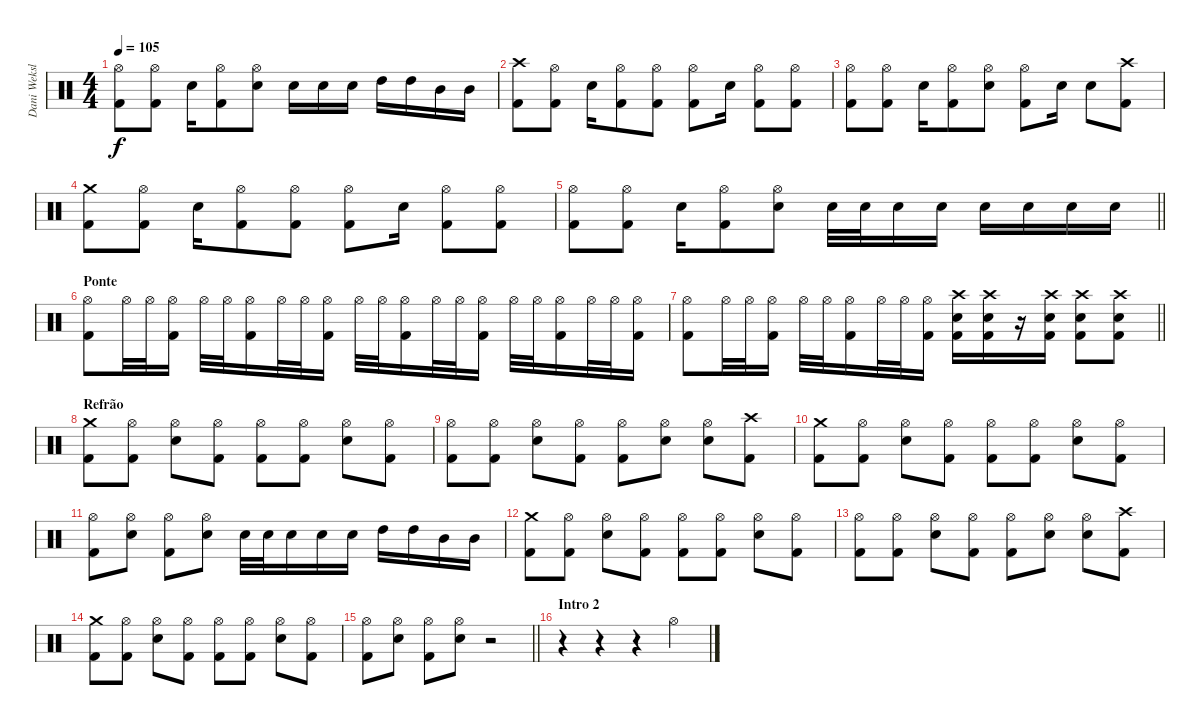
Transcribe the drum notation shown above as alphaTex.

\track ("Dani Weksler" "Dani Weksl") {instrument percussion}
\staff {score}
\articulation defaults
\ts (4 4)
\tempo 105
\clef neutral
\ks c
("Hi-Hat (open)" "Kick (hit) 2").8{dy f} ("Hi-Hat (open)" "Kick (hit) 2").8 "Electric Snare (hit)".16 ("Hi-Hat (open)" "Kick (hit) 2").8 ("Hi-Hat (open)" "Electric Snare (hit)").8 "Electric Snare (hit)".16 "Electric Snare (hit)".16 "Electric Snare (hit)".16 "High Tom (hit)".16 "High Tom (hit)".16 "Mid Tom (hit)".16 "Mid Tom (hit)".16 |
("Crash high (hit)" "Kick (hit) 2").8 ("Hi-Hat (open)" "Kick (hit) 2").8 "Electric Snare (hit)".16 ("Hi-Hat (open)" "Kick (hit) 2").8 ("Hi-Hat (open)" "Kick (hit) 2").8 ("Hi-Hat (open)" "Kick (hit) 2").8 "Electric Snare (hit)".16 ("Hi-Hat (open)" "Kick (hit) 2").8 ("Hi-Hat (open)" "Kick (hit) 2").8 |
("Hi-Hat (open)" "Kick (hit) 2").8 ("Hi-Hat (open)" "Kick (hit) 2").8 "Electric Snare (hit)".16 ("Hi-Hat (open)" "Kick (hit) 2").8 ("Hi-Hat (open)" "Electric Snare (hit)").8 ("Hi-Hat (open)" "Kick (hit) 2").8 "Electric Snare (hit)".16 "Electric Snare (hit)".8 ("Crash high (hit)" "Kick (hit) 2").8 |
("Crash medium (hit)" "Kick (hit) 2").8 ("Hi-Hat (open)" "Kick (hit) 2").8 "Electric Snare (hit)".16 ("Hi-Hat (open)" "Kick (hit) 2").8 ("Hi-Hat (open)" "Kick (hit) 2").8 ("Hi-Hat (open)" "Kick (hit) 2").8 "Electric Snare (hit)".16 ("Hi-Hat (open)" "Kick (hit) 2").8 ("Hi-Hat (open)" "Kick (hit) 2").8 |
\barLineRight lightlight
("Hi-Hat (open)" "Kick (hit) 2").8 ("Hi-Hat (open)" "Kick (hit) 2").8 "Electric Snare (hit)".16 ("Hi-Hat (open)" "Kick (hit) 2").8 ("Hi-Hat (open)" "Electric Snare (hit)").8 "Electric Snare (hit)".32 "Electric Snare (hit)".32 "Electric Snare (hit)".16 "Electric Snare (hit)".16 "Electric Snare (hit)".16 "Electric Snare (hit)".16 "Electric Snare (hit)".16 "Electric Snare (hit)".16 |
\section ("" "Ponte")
("Hi-Hat (open)" "Kick (hit) 2").8 "Hi-Hat (open)".32 "Hi-Hat (open)".32 ("Hi-Hat (open)" "Kick (hit) 2").16 "Hi-Hat (open)".32 "Hi-Hat (open)".32 ("Hi-Hat (open)" "Kick (hit) 2").16 "Hi-Hat (open)".32 "Hi-Hat (open)".32 ("Hi-Hat (open)" "Kick (hit) 2").16 "Hi-Hat (open)".32 "Hi-Hat (open)".32 ("Hi-Hat (open)" "Kick (hit) 2").16 "Hi-Hat (open)".32 "Hi-Hat (open)".32 ("Hi-Hat (open)" "Kick (hit) 2").16 "Hi-Hat (open)".32 "Hi-Hat (open)".32 ("Hi-Hat (open)" "Kick (hit) 2").16 "Hi-Hat (open)".32 "Hi-Hat (open)".32 ("Hi-Hat (open)" "Kick (hit) 2").16 |
\barLineRight lightlight
("Hi-Hat (open)" "Kick (hit) 2").8 "Hi-Hat (open)".32 "Hi-Hat (open)".32 ("Hi-Hat (open)" "Kick (hit) 2").16 "Hi-Hat (open)".32 "Hi-Hat (open)".32 ("Hi-Hat (open)" "Kick (hit) 2").16 "Hi-Hat (open)".32 "Hi-Hat (open)".32 ("Hi-Hat (open)" "Kick (hit) 2").16 ("Crash high (hit)" "Electric Snare (hit)" "Kick (hit) 2").16 ("Crash high (hit)" "Electric Snare (hit)" "Kick (hit) 2").16 r.16 ("Crash high (hit)" "Electric Snare (hit)" "Kick (hit) 2").16 ("Crash high (hit)" "Electric Snare (hit)" "Kick (hit) 2").8 ("Crash high (hit)" "Electric Snare (hit)" "Kick (hit) 2").8 |
\section ("" "Refrão")
("Crash medium (hit)" "Kick (hit) 2").8 ("Hi-Hat (open)" "Kick (hit) 2").8 ("Hi-Hat (open)" "Electric Snare (hit)").8 ("Hi-Hat (open)" "Kick (hit) 2").8 ("Hi-Hat (open)" "Kick (hit) 2").8 ("Hi-Hat (open)" "Kick (hit) 2").8 ("Hi-Hat (open)" "Electric Snare (hit)").8 ("Hi-Hat (open)" "Kick (hit) 2").8 |
("Hi-Hat (open)" "Kick (hit) 2").8 ("Hi-Hat (open)" "Kick (hit) 2").8 ("Hi-Hat (open)" "Electric Snare (hit)").8 ("Hi-Hat (open)" "Kick (hit) 2").8 ("Hi-Hat (open)" "Kick (hit) 2").8 ("Hi-Hat (open)" "Electric Snare (hit)").8 ("Hi-Hat (open)" "Electric Snare (hit)").8 ("Crash high (hit)" "Kick (hit) 2").8 |
("Crash medium (hit)" "Kick (hit) 2").8 ("Hi-Hat (open)" "Kick (hit) 2").8 ("Hi-Hat (open)" "Electric Snare (hit)").8 ("Hi-Hat (open)" "Kick (hit) 2").8 ("Hi-Hat (open)" "Kick (hit) 2").8 ("Hi-Hat (open)" "Kick (hit) 2").8 ("Hi-Hat (open)" "Electric Snare (hit)").8 ("Hi-Hat (open)" "Kick (hit) 2").8 |
("Hi-Hat (open)" "Kick (hit) 2").8 ("Hi-Hat (open)" "Electric Snare (hit)").8 ("Hi-Hat (open)" "Kick (hit) 2").8 ("Hi-Hat (open)" "Electric Snare (hit)").8 "Electric Snare (hit)".32 "Electric Snare (hit)".32 "Electric Snare (hit)".16 "Electric Snare (hit)".16 "Electric Snare (hit)".16 "High Tom (hit)".16 "High Tom (hit)".16 "Mid Tom (hit)".16 "Mid Tom (hit)".16 |
("Crash medium (hit)" "Kick (hit) 2").8 ("Hi-Hat (open)" "Kick (hit) 2").8 ("Hi-Hat (open)" "Electric Snare (hit)").8 ("Hi-Hat (open)" "Kick (hit) 2").8 ("Hi-Hat (open)" "Kick (hit) 2").8 ("Hi-Hat (open)" "Kick (hit) 2").8 ("Hi-Hat (open)" "Electric Snare (hit)").8 ("Hi-Hat (open)" "Kick (hit) 2").8 |
("Hi-Hat (open)" "Kick (hit) 2").8 ("Hi-Hat (open)" "Kick (hit) 2").8 ("Hi-Hat (open)" "Electric Snare (hit)").8 ("Hi-Hat (open)" "Kick (hit) 2").8 ("Hi-Hat (open)" "Kick (hit) 2").8 ("Hi-Hat (open)" "Electric Snare (hit)").8 ("Hi-Hat (open)" "Electric Snare (hit)").8 ("Crash high (hit)" "Kick (hit) 2").8 |
("Crash medium (hit)" "Kick (hit) 2").8 ("Hi-Hat (open)" "Kick (hit) 2").8 ("Hi-Hat (open)" "Electric Snare (hit)").8 ("Hi-Hat (open)" "Kick (hit) 2").8 ("Hi-Hat (open)" "Kick (hit) 2").8 ("Hi-Hat (open)" "Kick (hit) 2").8 ("Hi-Hat (open)" "Electric Snare (hit)").8 ("Hi-Hat (open)" "Kick (hit) 2").8 |
\barLineRight lightlight
("Hi-Hat (open)" "Kick (hit) 2").8 ("Hi-Hat (open)" "Electric Snare (hit)").8 ("Hi-Hat (open)" "Kick (hit) 2").8 ("Hi-Hat (open)" "Electric Snare (hit)").8 r.2 |
\section ("" "Intro 2")
r.4 r.4 r.4 "Hi-Hat (open)".4
